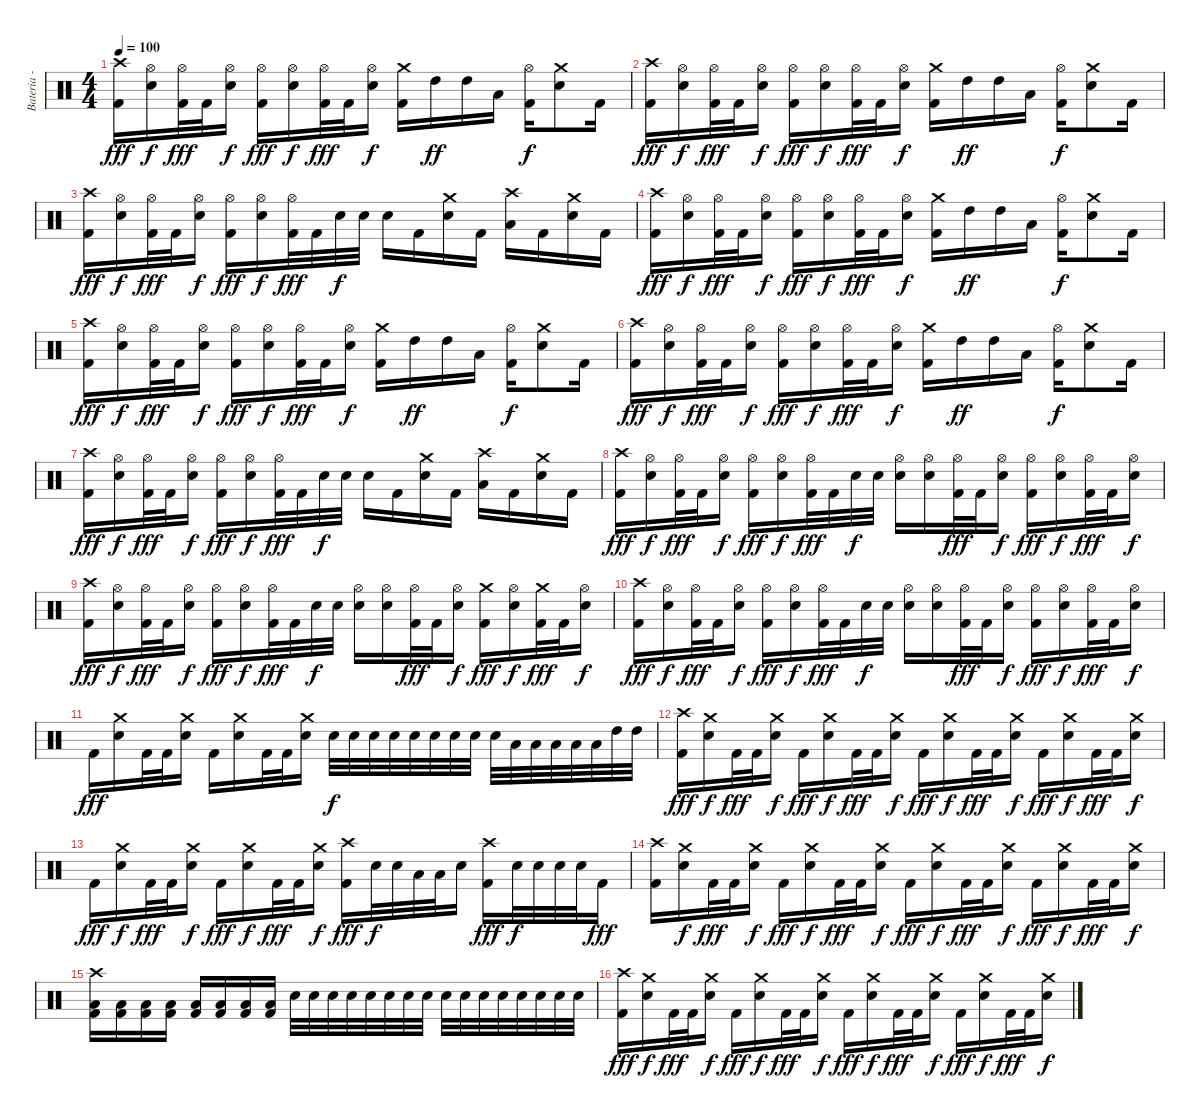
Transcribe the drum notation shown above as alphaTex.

\track ("Bateria - Drums" "Bateria - ") {instrument percussion}
\staff {score}
\articulation defaults
\ts (4 4)
\tempo 100
\clef neutral
\ks c
("Crash high (hit)" "Kick (hit) 2").16{dy fff} ("Hi-Hat (open)" "Electric Snare (hit)").16{dy f} ("Hi-Hat (open)" "Kick (hit) 2").32{dy fff} "Kick (hit) 2".32 ("Hi-Hat (open)" "Electric Snare (hit)").16{dy f} ("Hi-Hat (open)" "Kick (hit) 2").16{dy fff} ("Hi-Hat (open)" "Electric Snare (hit)").16{dy f} ("Hi-Hat (open)" "Kick (hit) 2").32{dy fff} "Kick (hit) 2".32 ("Hi-Hat (open)" "Electric Snare (hit)").16{dy f} ("Crash medium (hit)" "Kick (hit) 2").16 "High Tom (hit)".16{dy ff} "High Tom (hit)".16 "Low Floor Tom (hit)".16 ("Hi-Hat (open)" "Kick (hit) 2").16{dy f} ("Crash medium (hit)" "Electric Snare (hit)").8 "Kick (hit) 2".16 |
("Crash high (hit)" "Kick (hit) 2").16{dy fff} ("Hi-Hat (open)" "Electric Snare (hit)").16{dy f} ("Hi-Hat (open)" "Kick (hit) 2").32{dy fff} "Kick (hit) 2".32 ("Hi-Hat (open)" "Electric Snare (hit)").16{dy f} ("Hi-Hat (open)" "Kick (hit) 2").16{dy fff} ("Hi-Hat (open)" "Electric Snare (hit)").16{dy f} ("Hi-Hat (open)" "Kick (hit) 2").32{dy fff} "Kick (hit) 2".32 ("Hi-Hat (open)" "Electric Snare (hit)").16{dy f} ("Crash medium (hit)" "Kick (hit) 2").16 "High Tom (hit)".16{dy ff} "High Tom (hit)".16 "Low Floor Tom (hit)".16 ("Hi-Hat (open)" "Kick (hit) 2").16{dy f} ("Crash medium (hit)" "Electric Snare (hit)").8 "Kick (hit) 2".16 |
("Crash high (hit)" "Kick (hit) 2").16{dy fff} ("Hi-Hat (open)" "Electric Snare (hit)").16{dy f} ("Hi-Hat (open)" "Kick (hit) 2").32{dy fff} "Kick (hit) 2".32 ("Hi-Hat (open)" "Electric Snare (hit)").16{dy f} ("Hi-Hat (open)" "Kick (hit) 2").16{dy fff} ("Hi-Hat (open)" "Electric Snare (hit)").16{dy f} ("Hi-Hat (open)" "Kick (hit) 2").32{dy fff} "Kick (hit) 2".32 "Electric Snare (hit)".32{dy f} "Electric Snare (hit)".32 "Electric Snare (hit)".16 "Kick (hit) 2".16 ("Crash medium (hit)" "Electric Snare (hit)").16 "Kick (hit) 2".16 ("Crash high (hit)" "Low Tom (hit)").16 "Kick (hit) 2".16 ("Crash medium (hit)" "Electric Snare (hit)").16 "Kick (hit) 2".16 |
("Crash high (hit)" "Kick (hit) 2").16{dy fff} ("Hi-Hat (open)" "Electric Snare (hit)").16{dy f} ("Hi-Hat (open)" "Kick (hit) 2").32{dy fff} "Kick (hit) 2".32 ("Hi-Hat (open)" "Electric Snare (hit)").16{dy f} ("Hi-Hat (open)" "Kick (hit) 2").16{dy fff} ("Hi-Hat (open)" "Electric Snare (hit)").16{dy f} ("Hi-Hat (open)" "Kick (hit) 2").32{dy fff} "Kick (hit) 2".32 ("Hi-Hat (open)" "Electric Snare (hit)").16{dy f} ("Crash medium (hit)" "Kick (hit) 2").16 "High Tom (hit)".16{dy ff} "High Tom (hit)".16 "Low Floor Tom (hit)".16 ("Hi-Hat (open)" "Kick (hit) 2").16{dy f} ("Crash medium (hit)" "Electric Snare (hit)").8 "Kick (hit) 2".16 |
("Crash high (hit)" "Kick (hit) 2").16{dy fff} ("Hi-Hat (open)" "Electric Snare (hit)").16{dy f} ("Hi-Hat (open)" "Kick (hit) 2").32{dy fff} "Kick (hit) 2".32 ("Hi-Hat (open)" "Electric Snare (hit)").16{dy f} ("Hi-Hat (open)" "Kick (hit) 2").16{dy fff} ("Hi-Hat (open)" "Electric Snare (hit)").16{dy f} ("Hi-Hat (open)" "Kick (hit) 2").32{dy fff} "Kick (hit) 2".32 ("Hi-Hat (open)" "Electric Snare (hit)").16{dy f} ("Crash medium (hit)" "Kick (hit) 2").16 "High Tom (hit)".16{dy ff} "High Tom (hit)".16 "Low Floor Tom (hit)".16 ("Hi-Hat (open)" "Kick (hit) 2").16{dy f} ("Crash medium (hit)" "Electric Snare (hit)").8 "Kick (hit) 2".16 |
("Crash high (hit)" "Kick (hit) 2").16{dy fff} ("Hi-Hat (open)" "Electric Snare (hit)").16{dy f} ("Hi-Hat (open)" "Kick (hit) 2").32{dy fff} "Kick (hit) 2".32 ("Hi-Hat (open)" "Electric Snare (hit)").16{dy f} ("Hi-Hat (open)" "Kick (hit) 2").16{dy fff} ("Hi-Hat (open)" "Electric Snare (hit)").16{dy f} ("Hi-Hat (open)" "Kick (hit) 2").32{dy fff} "Kick (hit) 2".32 ("Hi-Hat (open)" "Electric Snare (hit)").16{dy f} ("Crash medium (hit)" "Kick (hit) 2").16 "High Tom (hit)".16{dy ff} "High Tom (hit)".16 "Low Floor Tom (hit)".16 ("Hi-Hat (open)" "Kick (hit) 2").16{dy f} ("Crash medium (hit)" "Electric Snare (hit)").8 "Kick (hit) 2".16 |
("Crash high (hit)" "Kick (hit) 2").16{dy fff} ("Hi-Hat (open)" "Electric Snare (hit)").16{dy f} ("Hi-Hat (open)" "Kick (hit) 2").32{dy fff} "Kick (hit) 2".32 ("Hi-Hat (open)" "Electric Snare (hit)").16{dy f} ("Hi-Hat (open)" "Kick (hit) 2").16{dy fff} ("Hi-Hat (open)" "Electric Snare (hit)").16{dy f} ("Hi-Hat (open)" "Kick (hit) 2").32{dy fff} "Kick (hit) 2".32 "Electric Snare (hit)".32{dy f} "Electric Snare (hit)".32 "Electric Snare (hit)".16 "Kick (hit) 2".16 ("Crash medium (hit)" "Electric Snare (hit)").16 "Kick (hit) 2".16 ("Crash high (hit)" "Low Tom (hit)").16 "Kick (hit) 2".16 ("Crash medium (hit)" "Electric Snare (hit)").16 "Kick (hit) 2".16 |
("Crash high (hit)" "Kick (hit) 2").16{dy fff} ("Hi-Hat (open)" "Electric Snare (hit)").16{dy f} ("Hi-Hat (open)" "Kick (hit) 2").32{dy fff} "Kick (hit) 2".32 ("Hi-Hat (open)" "Electric Snare (hit)").16{dy f} ("Hi-Hat (open)" "Kick (hit) 2").16{dy fff} ("Hi-Hat (open)" "Electric Snare (hit)").16{dy f} ("Hi-Hat (open)" "Kick (hit) 2").32{dy fff} "Kick (hit) 2".32 "Electric Snare (hit)".32{dy f} "Electric Snare (hit)".32 ("Hi-Hat (open)" "Electric Snare (hit)").16 ("Hi-Hat (open)" "Electric Snare (hit)").16 ("Hi-Hat (open)" "Kick (hit) 2").32{dy fff} "Kick (hit) 2".32 ("Hi-Hat (open)" "Electric Snare (hit)").16{dy f} ("Hi-Hat (open)" "Kick (hit) 2").16{dy fff} ("Hi-Hat (open)" "Electric Snare (hit)").16{dy f} ("Hi-Hat (open)" "Kick (hit) 2").32{dy fff} "Kick (hit) 2".32 ("Hi-Hat (open)" "Electric Snare (hit)").16{dy f} |
("Crash high (hit)" "Kick (hit) 2").16{dy fff} ("Hi-Hat (open)" "Electric Snare (hit)").16{dy f} ("Hi-Hat (open)" "Kick (hit) 2").32{dy fff} "Kick (hit) 2".32 ("Hi-Hat (open)" "Electric Snare (hit)").16{dy f} ("Hi-Hat (open)" "Kick (hit) 2").16{dy fff} ("Hi-Hat (open)" "Electric Snare (hit)").16{dy f} ("Hi-Hat (open)" "Kick (hit) 2").32{dy fff} "Kick (hit) 2".32 "Electric Snare (hit)".32{dy f} "Electric Snare (hit)".32 ("Hi-Hat (open)" "Electric Snare (hit)").16 ("Hi-Hat (open)" "Electric Snare (hit)").16 ("Hi-Hat (open)" "Kick (hit) 2").32{dy fff} "Kick (hit) 2".32 ("Hi-Hat (open)" "Electric Snare (hit)").16{dy f} ("Crash medium (hit)" "Kick (hit) 2").16{dy fff} ("Hi-Hat (open)" "Electric Snare (hit)").16{dy f} ("Crash medium (hit)" "Kick (hit) 2").32{dy fff} "Kick (hit) 2".32 ("Hi-Hat (open)" "Electric Snare (hit)").16{dy f} |
("Crash high (hit)" "Kick (hit) 2").16{dy fff} ("Hi-Hat (open)" "Electric Snare (hit)").16{dy f} ("Hi-Hat (open)" "Kick (hit) 2").32{dy fff} "Kick (hit) 2".32 ("Hi-Hat (open)" "Electric Snare (hit)").16{dy f} ("Hi-Hat (open)" "Kick (hit) 2").16{dy fff} ("Hi-Hat (open)" "Electric Snare (hit)").16{dy f} ("Hi-Hat (open)" "Kick (hit) 2").32{dy fff} "Kick (hit) 2".32 "Electric Snare (hit)".32{dy f} "Electric Snare (hit)".32 ("Hi-Hat (open)" "Electric Snare (hit)").16 ("Hi-Hat (open)" "Electric Snare (hit)").16 ("Hi-Hat (open)" "Kick (hit) 2").32{dy fff} "Kick (hit) 2".32 ("Hi-Hat (open)" "Electric Snare (hit)").16{dy f} ("Hi-Hat (open)" "Kick (hit) 2").16{dy fff} ("Hi-Hat (open)" "Electric Snare (hit)").16{dy f} ("Hi-Hat (open)" "Kick (hit) 2").32{dy fff} "Kick (hit) 2".32 ("Hi-Hat (open)" "Electric Snare (hit)").16{dy f} |
"Kick (hit) 2".16{dy fff} ("Crash medium (hit)" "Electric Snare (hit)").16 "Kick (hit) 2".32 "Kick (hit) 2".32 ("Crash medium (hit)" "Electric Snare (hit)").16 "Kick (hit) 2".16 ("Crash medium (hit)" "Electric Snare (hit)").16 "Kick (hit) 2".32 "Kick (hit) 2".32 ("Crash medium (hit)" "Electric Snare (hit)").16 "Electric Snare (hit)".32{dy f} "Electric Snare (hit)".32 "Electric Snare (hit)".32 "Electric Snare (hit)".32 "Electric Snare (hit)".32 "Electric Snare (hit)".32 "Electric Snare (hit)".32 "Electric Snare (hit)".32 "Electric Snare (hit)".32 "Low Tom (hit)".32 "Low Tom (hit)".32 "Low Tom (hit)".32 "Low Tom (hit)".32 "Low Tom (hit)".32 "High Tom (hit)".32 "High Tom (hit)".32 |
("Crash high (hit)" "Kick (hit) 2").16{dy fff} ("Crash medium (hit)" "Electric Snare (hit)").16{dy f} "Kick (hit) 2".32{dy fff} "Kick (hit) 2".32 ("Crash medium (hit)" "Electric Snare (hit)").16{dy f} "Kick (hit) 2".16{dy fff} ("Crash medium (hit)" "Electric Snare (hit)").16{dy f} "Kick (hit) 2".32{dy fff} "Kick (hit) 2".32 ("Crash medium (hit)" "Electric Snare (hit)").16{dy f} "Kick (hit) 2".16{dy fff} ("Crash medium (hit)" "Electric Snare (hit)").16{dy f} "Kick (hit) 2".32{dy fff} "Kick (hit) 2".32 ("Crash medium (hit)" "Electric Snare (hit)").16{dy f} "Kick (hit) 2".16{dy fff} ("Crash medium (hit)" "Electric Snare (hit)").16{dy f} "Kick (hit) 2".32{dy fff} "Kick (hit) 2".32 ("Crash medium (hit)" "Electric Snare (hit)").16{dy f} |
"Kick (hit) 2".16{dy fff} ("Crash medium (hit)" "Electric Snare (hit)").16{dy f} "Kick (hit) 2".32{dy fff} "Kick (hit) 2".32 ("Crash medium (hit)" "Electric Snare (hit)").16{dy f} "Kick (hit) 2".16{dy fff} ("Crash medium (hit)" "Electric Snare (hit)").16{dy f} "Kick (hit) 2".32{dy fff} "Kick (hit) 2".32 ("Crash medium (hit)" "Electric Snare (hit)").16{dy f} ("Crash high (hit)" "Kick (hit) 2").16{dy fff} "Electric Snare (hit)".32{dy f} "Electric Snare (hit)".32 "Low Tom (hit)".32 "Low Tom (hit)".32 "Electric Snare (hit)".16 ("Crash high (hit)" "Kick (hit) 2").16{dy fff} "Electric Snare (hit)".32{dy f} "Electric Snare (hit)".32 "Electric Snare (hit)".32 "Electric Snare (hit)".32 "Kick (hit) 2".16{dy fff} |
("Crash high (hit)" "Kick (hit) 2").16 ("Crash medium (hit)" "Electric Snare (hit)").16{dy f} "Kick (hit) 2".32{dy fff} "Kick (hit) 2".32 ("Crash medium (hit)" "Electric Snare (hit)").16{dy f} "Kick (hit) 2".16{dy fff} ("Crash medium (hit)" "Electric Snare (hit)").16{dy f} "Kick (hit) 2".32{dy fff} "Kick (hit) 2".32 ("Crash medium (hit)" "Electric Snare (hit)").16{dy f} "Kick (hit) 2".16{dy fff} ("Crash medium (hit)" "Electric Snare (hit)").16{dy f} "Kick (hit) 2".32{dy fff} "Kick (hit) 2".32 ("Crash medium (hit)" "Electric Snare (hit)").16{dy f} "Kick (hit) 2".16{dy fff} ("Crash medium (hit)" "Electric Snare (hit)").16{dy f} "Kick (hit) 2".32{dy fff} "Kick (hit) 2".32 ("Crash medium (hit)" "Electric Snare (hit)").16{dy f} |
("Crash high (hit)" "Low Tom (hit)" "Kick (hit) 2").16 ("Low Tom (hit)" "Kick (hit) 2").16 ("Low Tom (hit)" "Kick (hit) 2").16 ("Low Tom (hit)" "Kick (hit) 2").16 ("Low Tom (hit)" "Kick (hit) 2").16 ("Low Tom (hit)" "Kick (hit) 2").16 ("Low Tom (hit)" "Kick (hit) 2").16 ("Low Tom (hit)" "Kick (hit) 2").16 "Electric Snare (hit)".32 "Electric Snare (hit)".32 "Electric Snare (hit)".32 "Electric Snare (hit)".32 "Electric Snare (hit)".32 "Electric Snare (hit)".32 "Electric Snare (hit)".32 "Electric Snare (hit)".32 "Electric Snare (hit)".32 "Electric Snare (hit)".32 "Electric Snare (hit)".32 "Electric Snare (hit)".32 "Electric Snare (hit)".32 "Electric Snare (hit)".32 "Electric Snare (hit)".32 "Electric Snare (hit)".32 |
("Crash high (hit)" "Kick (hit) 2").16{dy fff} ("Crash medium (hit)" "Electric Snare (hit)").16{dy f} "Kick (hit) 2".32{dy fff} "Kick (hit) 2".32 ("Crash medium (hit)" "Electric Snare (hit)").16{dy f} "Kick (hit) 2".16{dy fff} ("Crash medium (hit)" "Electric Snare (hit)").16{dy f} "Kick (hit) 2".32{dy fff} "Kick (hit) 2".32 ("Crash medium (hit)" "Electric Snare (hit)").16{dy f} "Kick (hit) 2".16{dy fff} ("Crash medium (hit)" "Electric Snare (hit)").16{dy f} "Kick (hit) 2".32{dy fff} "Kick (hit) 2".32 ("Crash medium (hit)" "Electric Snare (hit)").16{dy f} "Kick (hit) 2".16{dy fff} ("Crash medium (hit)" "Electric Snare (hit)").16{dy f} "Kick (hit) 2".32{dy fff} "Kick (hit) 2".32 ("Crash medium (hit)" "Electric Snare (hit)").16{dy f}
